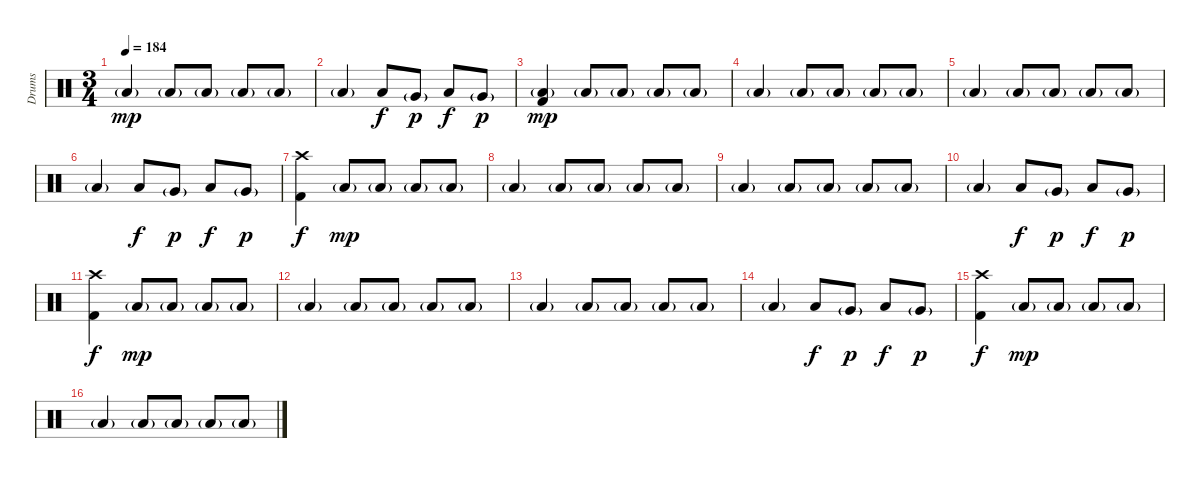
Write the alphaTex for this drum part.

\track ("Drums" "Drums") {instrument percussion}
\staff {score}
\articulation defaults
\ts (3 4)
\tempo 184
\clef neutral
\ks c "Low Floor Tom (hit)"{g}.4{dy mp} "Low Floor Tom (hit)"{g}.8 "Low Floor Tom (hit)"{g}.8 "Low Floor Tom (hit)"{g}.8 "Low Floor Tom (hit)"{g}.8
|
"Low Floor Tom (hit)"{g}.4 "Low Tom (hit)".8{dy f} "Very Low Tom (hit)"{g}.8{dy p} "Low Floor Tom (hit)".8{dy f} "Very Low Tom (hit)"{g}.8{dy p} |
("Low Floor Tom (hit)"{g} "Kick (hit) 2").4{dy mp} "Low Floor Tom (hit)"{g}.8 "Low Floor Tom (hit)"{g}.8 "Low Floor Tom (hit)"{g}.8 "Low Floor Tom (hit)"{g}.8 |
"Low Floor Tom (hit)"{g}.4 "Low Floor Tom (hit)"{g}.8 "Low Floor Tom (hit)"{g}.8 "Low Floor Tom (hit)"{g}.8 "Low Floor Tom (hit)"{g}.8 |
"Low Floor Tom (hit)"{g}.4 "Low Floor Tom (hit)"{g}.8 "Low Floor Tom (hit)"{g}.8 "Low Floor Tom (hit)"{g}.8 "Low Floor Tom (hit)"{g}.8 |
"Low Floor Tom (hit)"{g}.4 "Low Tom (hit)".8{dy f} "Very Low Tom (hit)"{g}.8{dy p} "Low Floor Tom (hit)".8{dy f} "Very Low Tom (hit)"{g}.8{dy p} |
("Crash high (hit)" "Kick (hit) 2").4{dy f} "Low Floor Tom (hit)"{g}.8{dy mp} "Low Floor Tom (hit)"{g}.8 "Low Floor Tom (hit)"{g}.8 "Low Floor Tom (hit)"{g}.8 |
"Low Floor Tom (hit)"{g}.4 "Low Floor Tom (hit)"{g}.8 "Low Floor Tom (hit)"{g}.8 "Low Floor Tom (hit)"{g}.8 "Low Floor Tom (hit)"{g}.8 |
"Low Floor Tom (hit)"{g}.4 "Low Floor Tom (hit)"{g}.8 "Low Floor Tom (hit)"{g}.8 "Low Floor Tom (hit)"{g}.8 "Low Floor Tom (hit)"{g}.8 |
"Low Floor Tom (hit)"{g}.4 "Low Tom (hit)".8{dy f} "Very Low Tom (hit)"{g}.8{dy p} "Low Floor Tom (hit)".8{dy f} "Very Low Tom (hit)"{g}.8{dy p} |
("Crash high (hit)" "Kick (hit) 2").4{dy f} "Low Floor Tom (hit)"{g}.8{dy mp} "Low Floor Tom (hit)"{g}.8 "Low Floor Tom (hit)"{g}.8 "Low Floor Tom (hit)"{g}.8 |
"Low Floor Tom (hit)"{g}.4 "Low Floor Tom (hit)"{g}.8 "Low Floor Tom (hit)"{g}.8 "Low Floor Tom (hit)"{g}.8 "Low Floor Tom (hit)"{g}.8 |
"Low Floor Tom (hit)"{g}.4 "Low Floor Tom (hit)"{g}.8 "Low Floor Tom (hit)"{g}.8 "Low Floor Tom (hit)"{g}.8 "Low Floor Tom (hit)"{g}.8 |
"Low Floor Tom (hit)"{g}.4 "Low Tom (hit)".8{dy f} "Very Low Tom (hit)"{g}.8{dy p} "Low Floor Tom (hit)".8{dy f} "Very Low Tom (hit)"{g}.8{dy p} |
("Crash high (hit)" "Kick (hit) 2").4{dy f} "Low Floor Tom (hit)"{g}.8{dy mp} "Low Floor Tom (hit)"{g}.8 "Low Floor Tom (hit)"{g}.8 "Low Floor Tom (hit)"{g}.8 |
"Low Floor Tom (hit)"{g}.4 "Low Floor Tom (hit)"{g}.8 "Low Floor Tom (hit)"{g}.8 "Low Floor Tom (hit)"{g}.8 "Low Floor Tom (hit)"{g}.8
